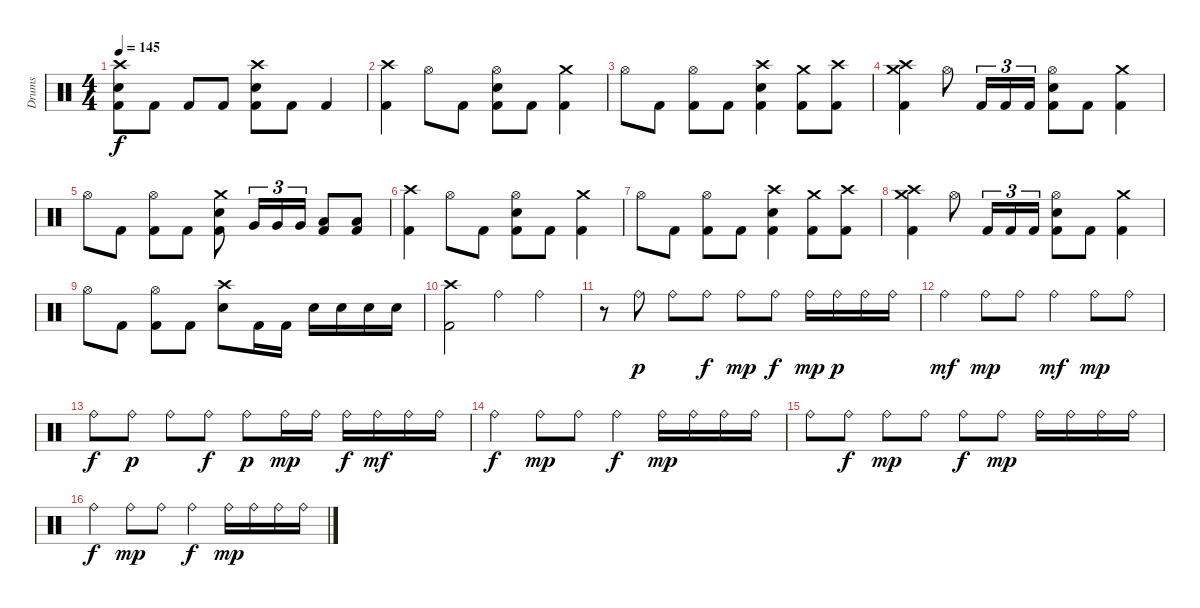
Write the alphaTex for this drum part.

\track ("Drums" "Drums") {instrument percussion}
\staff {score}
\articulation defaults
\ts (4 4)
\tempo 145
\clef neutral
\ks c
("Crash high (hit)" "Electric Snare (hit)" "Kick (hit) 2").8{dy f} "Kick (hit) 2".8 "Kick (hit) 2".8 "Kick (hit) 2".8 ("Crash high (hit)" "Electric Snare (hit)" "Kick (hit) 2").8 "Kick (hit) 2".8 "Kick (hit) 2".4 |
("Crash high (hit)" "Kick (hit) 2").4 "Hi-Hat (open)".8 "Kick (hit) 2".8 ("Hi-Hat (open)" "Electric Snare (hit)" "Kick (hit) 2").8 "Kick (hit) 2".8 ("Crash medium (hit)" "Kick (hit) 2").4 |
"Hi-Hat (open)".8 "Kick (hit) 2".8 ("Hi-Hat (open)" "Kick (hit) 2").8 "Kick (hit) 2".8 ("Crash high (hit)" "Electric Snare (hit)" "Kick (hit) 2").4 ("Crash medium (hit)" "Kick (hit) 2").8 ("Crash high (hit)" "Kick (hit) 2").8 |
("Crash high (hit)" "Crash medium (hit)" "Kick (hit) 2").4 "Hi-Hat (open)".8 "Kick (hit) 2".16{tu (3 2)} "Kick (hit) 2".16{tu (3 2)} "Kick (hit) 2".16{tu (3 2)} ("Hi-Hat (open)" "Electric Snare (hit)" "Kick (hit) 2").8 "Kick (hit) 2".8 ("Crash medium (hit)" "Kick (hit) 2").4 |
"Hi-Hat (open)".8 "Kick (hit) 2".8 ("Hi-Hat (open)" "Kick (hit) 2").8 "Kick (hit) 2".8 ("Crash medium (hit)" "Electric Snare (hit)" "Kick (hit) 2").8 "Very Low Tom (hit)".16{tu (3 2)} "Very Low Tom (hit)".16{tu (3 2)} "Very Low Tom (hit)".16{tu (3 2)} ("Low Floor Tom (hit)" "Kick (hit) 2").8 ("Low Floor Tom (hit)" "Kick (hit) 2").8 |
("Crash high (hit)" "Kick (hit) 2").4 "Hi-Hat (open)".8 "Kick (hit) 2".8 ("Hi-Hat (open)" "Electric Snare (hit)" "Kick (hit) 2").8 "Kick (hit) 2".8 ("Crash medium (hit)" "Kick (hit) 2").4 |
"Hi-Hat (open)".8 "Kick (hit) 2".8 ("Hi-Hat (open)" "Kick (hit) 2").8 "Kick (hit) 2".8 ("Crash high (hit)" "Electric Snare (hit)" "Kick (hit) 2").4 ("Crash medium (hit)" "Kick (hit) 2").8 ("Crash high (hit)" "Kick (hit) 2").8 |
("Crash high (hit)" "Crash medium (hit)" "Kick (hit) 2").4 "Hi-Hat (open)".8 "Kick (hit) 2".16{tu (3 2)} "Kick (hit) 2".16{tu (3 2)} "Kick (hit) 2".16{tu (3 2)} ("Hi-Hat (open)" "Electric Snare (hit)" "Kick (hit) 2").8 "Kick (hit) 2".8 ("Crash medium (hit)" "Kick (hit) 2").4 |
"Hi-Hat (open)".8 "Kick (hit) 2".8 ("Hi-Hat (open)" "Kick (hit) 2").8 "Kick (hit) 2".8 ("Crash high (hit)" "Electric Snare (hit)").8 "Kick (hit) 2".16 "Kick (hit) 2".16 "Electric Snare (hit)".16 "Electric Snare (hit)".16 "Electric Snare (hit)".16 "Electric Snare (hit)".16 |
("Crash high (hit)" "Kick (hit) 2").2 "Ride (bell)".4 "Ride (bell)".4 |
r.8 "Ride (bell)".8{dy p} "Ride (bell)".8 "Ride (bell)".8{dy f} "Ride (bell)".8{dy mp} "Ride (bell)".8{dy f} "Ride (bell)".16{dy mp} "Ride (bell)".16{dy p} "Ride (bell)".16 "Ride (bell)".16 |
"Ride (bell)".4{dy mf} "Ride (bell)".8{dy mp} "Ride (bell)".8 "Ride (bell)".4{dy mf} "Ride (bell)".8{dy mp} "Ride (bell)".8 |
"Ride (bell)".8{dy f} "Ride (bell)".8{dy p} "Ride (bell)".8 "Ride (bell)".8{dy f} "Ride (bell)".8{dy p} "Ride (bell)".16{dy mp} "Ride (bell)".16 "Ride (bell)".16{dy f} "Ride (bell)".16{dy mf} "Ride (bell)".16 "Ride (bell)".16 |
"Ride (bell)".4{dy f} "Ride (bell)".8{dy mp} "Ride (bell)".8 "Ride (bell)".4{dy f} "Ride (bell)".16{dy mp} "Ride (bell)".16 "Ride (bell)".16 "Ride (bell)".16 |
"Ride (bell)".8 "Ride (bell)".8{dy f} "Ride (bell)".8{dy mp} "Ride (bell)".8 "Ride (bell)".8{dy f} "Ride (bell)".8{dy mp} "Ride (bell)".16 "Ride (bell)".16 "Ride (bell)".16 "Ride (bell)".16 |
"Ride (bell)".4{dy f} "Ride (bell)".8{dy mp} "Ride (bell)".8 "Ride (bell)".4{dy f} "Ride (bell)".16{dy mp} "Ride (bell)".16 "Ride (bell)".16 "Ride (bell)".16
